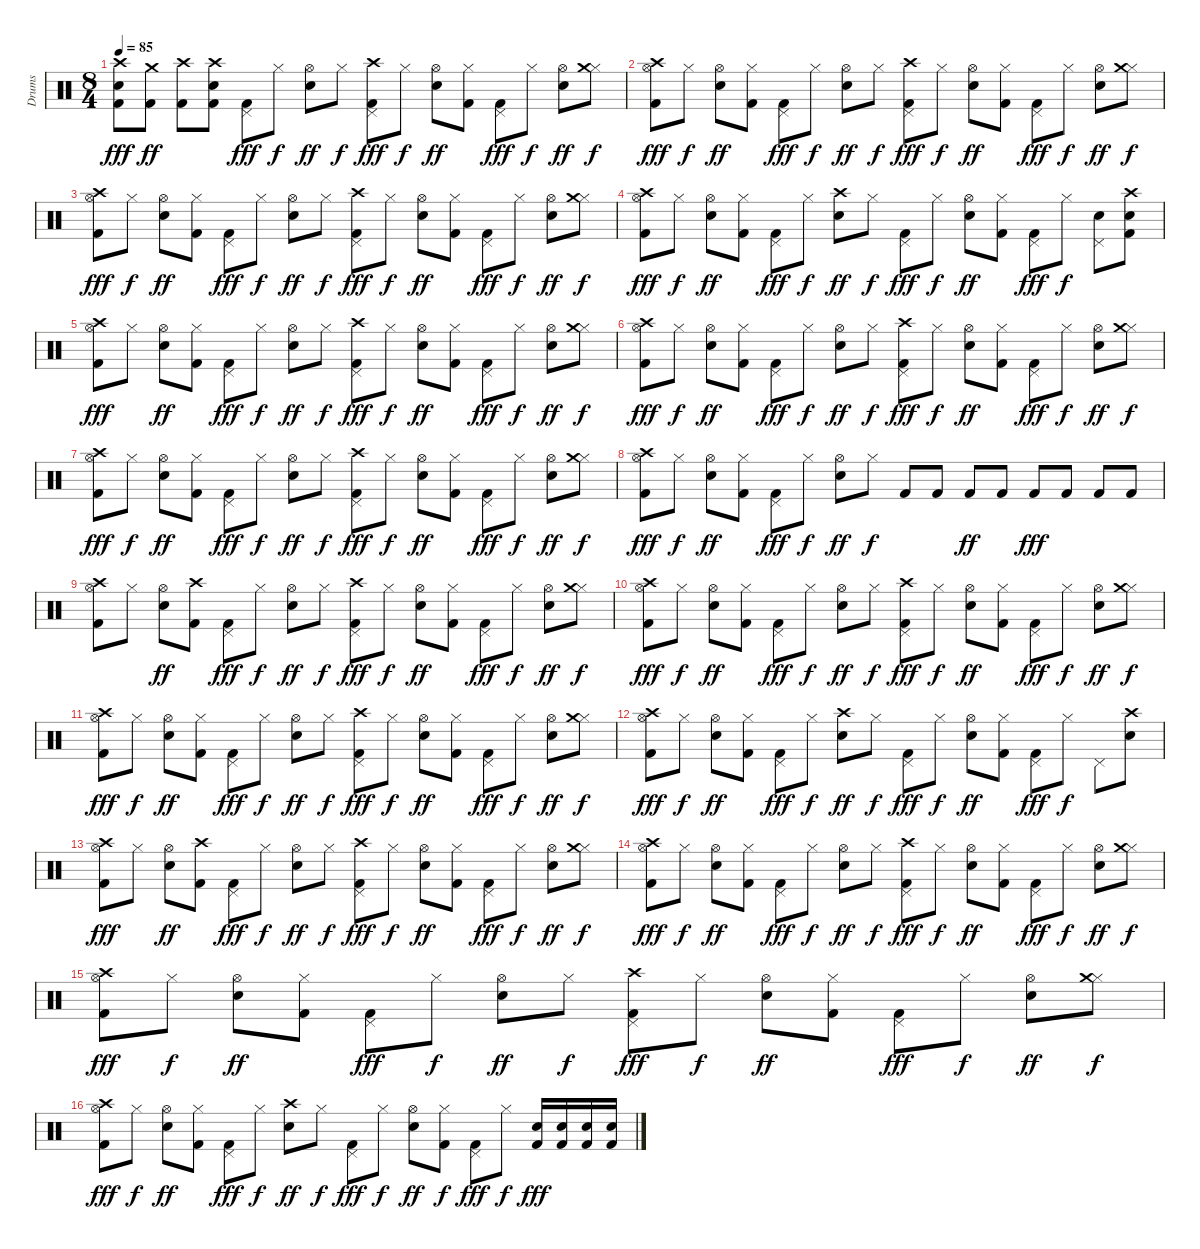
\track ("Drums" "Drums") {instrument percussion}
\staff {score}
\articulation defaults
\ts (8 4)
\tempo 85
\clef neutral
\ks c
("Crash high (hit)" "Electric Snare (hit)" "Kick (hit) 2").8{dy fff} ("Crash medium (hit)" "Kick (hit) 2").8{dy ff} ("Crash high (hit)" "Kick (hit) 2").8 ("Crash high (hit)" "Electric Snare (hit)" "Kick (hit) 2").8 ("Pedal Hi-Hat (hit)" "Kick (hit) 2").8{dy fff} "Hi-Hat (closed)".8{dy f} ("Hi-Hat (open)" "Electric Snare (hit)").8{dy ff} "Hi-Hat (closed)".8{dy f} ("Pedal Hi-Hat (hit)" "Crash high (hit)" "Kick (hit) 2").8{dy fff} "Hi-Hat (closed)".8{dy f} ("Hi-Hat (open)" "Electric Snare (hit)").8{dy ff} ("Hi-Hat (closed)" "Kick (hit) 2").8 ("Pedal Hi-Hat (hit)" "Kick (hit) 2").8{dy fff} "Hi-Hat (closed)".8{dy f} ("Hi-Hat (open)" "Electric Snare (hit)").8{dy ff} ("Hi-Hat (closed)" "Crash medium (hit)").8{dy f} |
("Hi-Hat (open)" "Crash high (hit)" "Kick (hit) 2").8{dy fff} "Hi-Hat (closed)".8{dy f} ("Hi-Hat (open)" "Electric Snare (hit)").8{dy ff} ("Hi-Hat (closed)" "Kick (hit) 2").8 ("Pedal Hi-Hat (hit)" "Kick (hit) 2").8{dy fff} "Hi-Hat (closed)".8{dy f} ("Hi-Hat (open)" "Electric Snare (hit)").8{dy ff} "Hi-Hat (closed)".8{dy f} ("Pedal Hi-Hat (hit)" "Crash high (hit)" "Kick (hit) 2").8{dy fff} "Hi-Hat (closed)".8{dy f} ("Hi-Hat (open)" "Electric Snare (hit)").8{dy ff} ("Hi-Hat (closed)" "Kick (hit) 2").8 ("Pedal Hi-Hat (hit)" "Kick (hit) 2").8{dy fff} "Hi-Hat (closed)".8{dy f} ("Hi-Hat (open)" "Electric Snare (hit)").8{dy ff} ("Hi-Hat (closed)" "Crash medium (hit)").8{dy f} |
("Hi-Hat (open)" "Crash high (hit)" "Kick (hit) 2").8{dy fff} "Hi-Hat (closed)".8{dy f} ("Hi-Hat (open)" "Electric Snare (hit)").8{dy ff} ("Hi-Hat (closed)" "Kick (hit) 2").8 ("Pedal Hi-Hat (hit)" "Kick (hit) 2").8{dy fff} "Hi-Hat (closed)".8{dy f} ("Hi-Hat (open)" "Electric Snare (hit)").8{dy ff} "Hi-Hat (closed)".8{dy f} ("Pedal Hi-Hat (hit)" "Crash high (hit)" "Kick (hit) 2").8{dy fff} "Hi-Hat (closed)".8{dy f} ("Hi-Hat (open)" "Electric Snare (hit)").8{dy ff} ("Hi-Hat (closed)" "Kick (hit) 2").8 ("Pedal Hi-Hat (hit)" "Kick (hit) 2").8{dy fff} "Hi-Hat (closed)".8{dy f} ("Hi-Hat (open)" "Electric Snare (hit)").8{dy ff} ("Hi-Hat (closed)" "Crash medium (hit)").8{dy f} |
("Hi-Hat (open)" "Crash high (hit)" "Kick (hit) 2").8{dy fff} "Hi-Hat (closed)".8{dy f} ("Hi-Hat (open)" "Electric Snare (hit)").8{dy ff} ("Hi-Hat (closed)" "Kick (hit) 2").8 ("Pedal Hi-Hat (hit)" "Kick (hit) 2").8{dy fff} "Hi-Hat (closed)".8{dy f} ("Crash high (hit)" "Electric Snare (hit)").8{dy ff} "Hi-Hat (closed)".8{dy f} ("Pedal Hi-Hat (hit)" "Kick (hit) 2").8{dy fff} "Hi-Hat (closed)".8{dy f} ("Hi-Hat (open)" "Electric Snare (hit)").8{dy ff} ("Hi-Hat (closed)" "Kick (hit) 2").8 ("Pedal Hi-Hat (hit)" "Kick (hit) 2").8{dy fff} "Hi-Hat (closed)".8{dy f} ("Pedal Hi-Hat (hit)" "Electric Snare (hit)").8 ("Crash high (hit)" "Electric Snare (hit)" "Kick (hit) 2").8 |
("Hi-Hat (open)" "Crash high (hit)" "Kick (hit) 2").8{dy fff} "Hi-Hat (closed)".8 ("Hi-Hat (open)" "Electric Snare (hit)").8{dy ff} ("Hi-Hat (closed)" "Kick (hit) 2").8 ("Pedal Hi-Hat (hit)" "Kick (hit) 2").8{dy fff} "Hi-Hat (closed)".8{dy f} ("Hi-Hat (open)" "Electric Snare (hit)").8{dy ff} "Hi-Hat (closed)".8{dy f} ("Pedal Hi-Hat (hit)" "Crash high (hit)" "Kick (hit) 2").8{dy fff} "Hi-Hat (closed)".8{dy f} ("Hi-Hat (open)" "Electric Snare (hit)").8{dy ff} ("Hi-Hat (closed)" "Kick (hit) 2").8 ("Pedal Hi-Hat (hit)" "Kick (hit) 2").8{dy fff} "Hi-Hat (closed)".8{dy f} ("Hi-Hat (open)" "Electric Snare (hit)").8{dy ff} ("Hi-Hat (closed)" "Crash medium (hit)").8{dy f} |
("Hi-Hat (open)" "Crash high (hit)" "Kick (hit) 2").8{dy fff} "Hi-Hat (closed)".8{dy f} ("Hi-Hat (open)" "Electric Snare (hit)").8{dy ff} ("Hi-Hat (closed)" "Kick (hit) 2").8 ("Pedal Hi-Hat (hit)" "Kick (hit) 2").8{dy fff} "Hi-Hat (closed)".8{dy f} ("Hi-Hat (open)" "Electric Snare (hit)").8{dy ff} "Hi-Hat (closed)".8{dy f} ("Pedal Hi-Hat (hit)" "Crash high (hit)" "Kick (hit) 2").8{dy fff} "Hi-Hat (closed)".8{dy f} ("Hi-Hat (open)" "Electric Snare (hit)").8{dy ff} ("Hi-Hat (closed)" "Kick (hit) 2").8 ("Pedal Hi-Hat (hit)" "Kick (hit) 2").8{dy fff} "Hi-Hat (closed)".8{dy f} ("Hi-Hat (open)" "Electric Snare (hit)").8{dy ff} ("Hi-Hat (closed)" "Crash medium (hit)").8{dy f} |
("Hi-Hat (open)" "Crash high (hit)" "Kick (hit) 2").8{dy fff} "Hi-Hat (closed)".8{dy f} ("Hi-Hat (open)" "Electric Snare (hit)").8{dy ff} ("Hi-Hat (closed)" "Kick (hit) 2").8 ("Pedal Hi-Hat (hit)" "Kick (hit) 2").8{dy fff} "Hi-Hat (closed)".8{dy f} ("Hi-Hat (open)" "Electric Snare (hit)").8{dy ff} "Hi-Hat (closed)".8{dy f} ("Pedal Hi-Hat (hit)" "Crash high (hit)" "Kick (hit) 2").8{dy fff} "Hi-Hat (closed)".8{dy f} ("Hi-Hat (open)" "Electric Snare (hit)").8{dy ff} ("Hi-Hat (closed)" "Kick (hit) 2").8 ("Pedal Hi-Hat (hit)" "Kick (hit) 2").8{dy fff} "Hi-Hat (closed)".8{dy f} ("Hi-Hat (open)" "Electric Snare (hit)").8{dy ff} ("Hi-Hat (closed)" "Crash medium (hit)").8{dy f} |
("Hi-Hat (open)" "Crash high (hit)" "Kick (hit) 2").8{dy fff} "Hi-Hat (closed)".8{dy f} ("Hi-Hat (open)" "Electric Snare (hit)").8{dy ff} ("Hi-Hat (closed)" "Kick (hit) 2").8 ("Pedal Hi-Hat (hit)" "Kick (hit) 2").8{dy fff} "Hi-Hat (closed)".8{dy f} ("Hi-Hat (open)" "Electric Snare (hit)").8{dy ff} "Hi-Hat (closed)".8{dy f} "Kick (hit) 2".8 "Kick (hit) 2".8 "Kick (hit) 2".8{dy ff} "Kick (hit) 2".8 "Kick (hit) 2".8{dy fff} "Kick (hit) 2".8 "Kick (hit) 2".8 "Kick (hit) 2".8 |
("Hi-Hat (open)" "Crash high (hit)" "Kick (hit) 2").8 "Hi-Hat (closed)".8 ("Hi-Hat (open)" "Electric Snare (hit)").8{dy ff} ("Crash high (hit)" "Kick (hit) 2").8 ("Pedal Hi-Hat (hit)" "Kick (hit) 2").8{dy fff} "Hi-Hat (closed)".8{dy f} ("Hi-Hat (open)" "Electric Snare (hit)").8{dy ff} "Hi-Hat (closed)".8{dy f} ("Pedal Hi-Hat (hit)" "Crash high (hit)" "Kick (hit) 2").8{dy fff} "Hi-Hat (closed)".8{dy f} ("Hi-Hat (open)" "Electric Snare (hit)").8{dy ff} ("Hi-Hat (closed)" "Kick (hit) 2").8 ("Pedal Hi-Hat (hit)" "Kick (hit) 2").8{dy fff} "Hi-Hat (closed)".8{dy f} ("Hi-Hat (open)" "Electric Snare (hit)").8{dy ff} ("Hi-Hat (closed)" "Crash medium (hit)").8{dy f} |
("Hi-Hat (open)" "Crash high (hit)" "Kick (hit) 2").8{dy fff} "Hi-Hat (closed)".8{dy f} ("Hi-Hat (open)" "Electric Snare (hit)").8{dy ff} ("Hi-Hat (closed)" "Kick (hit) 2").8 ("Pedal Hi-Hat (hit)" "Kick (hit) 2").8{dy fff} "Hi-Hat (closed)".8{dy f} ("Hi-Hat (open)" "Electric Snare (hit)").8{dy ff} "Hi-Hat (closed)".8{dy f} ("Pedal Hi-Hat (hit)" "Crash high (hit)" "Kick (hit) 2").8{dy fff} "Hi-Hat (closed)".8{dy f} ("Hi-Hat (open)" "Electric Snare (hit)").8{dy ff} ("Hi-Hat (closed)" "Kick (hit) 2").8 ("Pedal Hi-Hat (hit)" "Kick (hit) 2").8{dy fff} "Hi-Hat (closed)".8{dy f} ("Hi-Hat (open)" "Electric Snare (hit)").8{dy ff} ("Hi-Hat (closed)" "Crash medium (hit)").8{dy f} |
("Hi-Hat (open)" "Crash high (hit)" "Kick (hit) 2").8{dy fff} "Hi-Hat (closed)".8{dy f} ("Hi-Hat (open)" "Electric Snare (hit)").8{dy ff} ("Hi-Hat (closed)" "Kick (hit) 2").8 ("Pedal Hi-Hat (hit)" "Kick (hit) 2").8{dy fff} "Hi-Hat (closed)".8{dy f} ("Hi-Hat (open)" "Electric Snare (hit)").8{dy ff} "Hi-Hat (closed)".8{dy f} ("Pedal Hi-Hat (hit)" "Crash high (hit)" "Kick (hit) 2").8{dy fff} "Hi-Hat (closed)".8{dy f} ("Hi-Hat (open)" "Electric Snare (hit)").8{dy ff} ("Hi-Hat (closed)" "Kick (hit) 2").8 ("Pedal Hi-Hat (hit)" "Kick (hit) 2").8{dy fff} "Hi-Hat (closed)".8{dy f} ("Hi-Hat (open)" "Electric Snare (hit)").8{dy ff} ("Hi-Hat (closed)" "Crash medium (hit)").8{dy f} |
("Hi-Hat (open)" "Crash high (hit)" "Kick (hit) 2").8{dy fff} "Hi-Hat (closed)".8{dy f} ("Hi-Hat (open)" "Electric Snare (hit)").8{dy ff} ("Hi-Hat (closed)" "Kick (hit) 2").8 ("Pedal Hi-Hat (hit)" "Kick (hit) 2").8{dy fff} "Hi-Hat (closed)".8{dy f} ("Crash high (hit)" "Electric Snare (hit)").8{dy ff} "Hi-Hat (closed)".8{dy f} ("Pedal Hi-Hat (hit)" "Kick (hit) 2").8{dy fff} "Hi-Hat (closed)".8{dy f} ("Hi-Hat (open)" "Electric Snare (hit)").8{dy ff} ("Hi-Hat (closed)" "Kick (hit) 2").8 ("Pedal Hi-Hat (hit)" "Kick (hit) 2").8{dy fff} "Hi-Hat (closed)".8{dy f} "Pedal Hi-Hat (hit)".8 ("Crash high (hit)" "Electric Snare (hit)").8 |
("Hi-Hat (open)" "Crash high (hit)" "Kick (hit) 2").8{dy fff} "Hi-Hat (closed)".8 ("Hi-Hat (open)" "Electric Snare (hit)").8{dy ff} ("Crash high (hit)" "Kick (hit) 2").8 ("Pedal Hi-Hat (hit)" "Kick (hit) 2").8{dy fff} "Hi-Hat (closed)".8{dy f} ("Hi-Hat (open)" "Electric Snare (hit)").8{dy ff} "Hi-Hat (closed)".8{dy f} ("Pedal Hi-Hat (hit)" "Crash high (hit)" "Kick (hit) 2").8{dy fff} "Hi-Hat (closed)".8{dy f} ("Hi-Hat (open)" "Electric Snare (hit)").8{dy ff} ("Hi-Hat (closed)" "Kick (hit) 2").8 ("Pedal Hi-Hat (hit)" "Kick (hit) 2").8{dy fff} "Hi-Hat (closed)".8{dy f} ("Hi-Hat (open)" "Electric Snare (hit)").8{dy ff} ("Hi-Hat (closed)" "Crash medium (hit)").8{dy f} |
("Hi-Hat (open)" "Crash high (hit)" "Kick (hit) 2").8{dy fff} "Hi-Hat (closed)".8{dy f} ("Hi-Hat (open)" "Electric Snare (hit)").8{dy ff} ("Hi-Hat (closed)" "Kick (hit) 2").8 ("Pedal Hi-Hat (hit)" "Kick (hit) 2").8{dy fff} "Hi-Hat (closed)".8{dy f} ("Hi-Hat (open)" "Electric Snare (hit)").8{dy ff} "Hi-Hat (closed)".8{dy f} ("Pedal Hi-Hat (hit)" "Crash high (hit)" "Kick (hit) 2").8{dy fff} "Hi-Hat (closed)".8{dy f} ("Hi-Hat (open)" "Electric Snare (hit)").8{dy ff} ("Hi-Hat (closed)" "Kick (hit) 2").8 ("Pedal Hi-Hat (hit)" "Kick (hit) 2").8{dy fff} "Hi-Hat (closed)".8{dy f} ("Hi-Hat (open)" "Electric Snare (hit)").8{dy ff} ("Hi-Hat (closed)" "Crash medium (hit)").8{dy f} |
("Hi-Hat (open)" "Crash high (hit)" "Kick (hit) 2").8{dy fff} "Hi-Hat (closed)".8{dy f} ("Hi-Hat (open)" "Electric Snare (hit)").8{dy ff} ("Hi-Hat (closed)" "Kick (hit) 2").8 ("Pedal Hi-Hat (hit)" "Kick (hit) 2").8{dy fff} "Hi-Hat (closed)".8{dy f} ("Hi-Hat (open)" "Electric Snare (hit)").8{dy ff} "Hi-Hat (closed)".8{dy f} ("Pedal Hi-Hat (hit)" "Crash high (hit)" "Kick (hit) 2").8{dy fff} "Hi-Hat (closed)".8{dy f} ("Hi-Hat (open)" "Electric Snare (hit)").8{dy ff} ("Hi-Hat (closed)" "Kick (hit) 2").8 ("Pedal Hi-Hat (hit)" "Kick (hit) 2").8{dy fff} "Hi-Hat (closed)".8{dy f} ("Hi-Hat (open)" "Electric Snare (hit)").8{dy ff} ("Hi-Hat (closed)" "Crash medium (hit)").8{dy f} |
("Hi-Hat (open)" "Crash high (hit)" "Kick (hit) 2").8{dy fff} "Hi-Hat (closed)".8{dy f} ("Hi-Hat (open)" "Electric Snare (hit)").8{dy ff} ("Hi-Hat (closed)" "Kick (hit) 2").8 ("Pedal Hi-Hat (hit)" "Kick (hit) 2").8{dy fff} "Hi-Hat (closed)".8{dy f} ("Crash high (hit)" "Electric Snare (hit)").8{dy ff} "Hi-Hat (closed)".8{dy f} ("Pedal Hi-Hat (hit)" "Kick (hit) 2").8{dy fff} "Hi-Hat (closed)".8{dy f} ("Hi-Hat (open)" "Electric Snare (hit)").8{dy ff} ("Hi-Hat (closed)" "Kick (hit) 2").8{dy f} ("Pedal Hi-Hat (hit)" "Kick (hit) 2").8{dy fff} "Hi-Hat (closed)".8{dy f} ("Electric Snare (hit)" "Kick (hit) 2").16{dy fff} ("Electric Snare (hit)" "Kick (hit) 2").16 ("Electric Snare (hit)" "Kick (hit) 2").16 ("Electric Snare (hit)" "Kick (hit) 2").16
